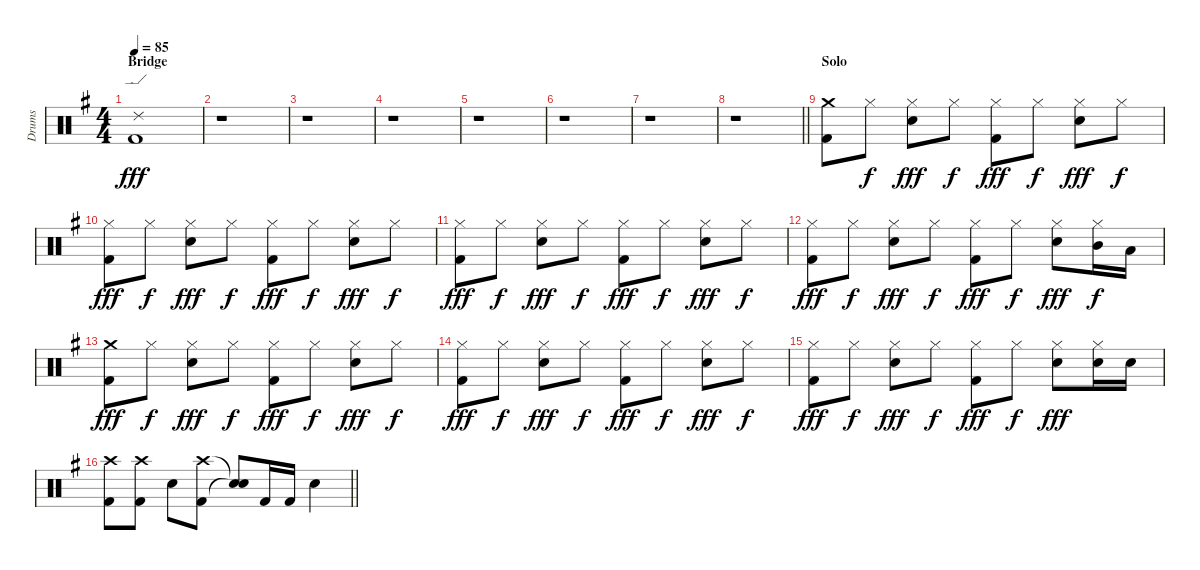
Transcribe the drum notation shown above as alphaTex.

\track ("Drums" "Drums") {instrument percussion}
\staff {score}
\articulation defaults
\ts (4 4)
\section ("" "Bridge")
\tempo 85
\clef neutral
\ks g
("Ride (edge) 2" "Kick (hit) 2").1{dy fff} |
r.1 |
r.1 |
r.1 |
r.1 |
r.1 |
r.1 |
\barLineRight lightlight
r.1 |
\section ("" "Solo")
("Crash medium (hit)" "Kick (hit) 2").8 "Hi-Hat (closed)".8{dy f} ("Hi-Hat (closed)" "Snare (hit) 2").8{dy fff} "Hi-Hat (closed)".8{dy f} ("Hi-Hat (closed)" "Kick (hit) 2").8{dy fff} "Hi-Hat (closed)".8{dy f} ("Hi-Hat (closed)" "Snare (hit) 2").8{dy fff} "Hi-Hat (closed)".8{dy f} |
("Hi-Hat (closed)" "Kick (hit) 2").8{dy fff} "Hi-Hat (closed)".8{dy f} ("Hi-Hat (closed)" "Snare (hit) 2").8{dy fff} "Hi-Hat (closed)".8{dy f} ("Hi-Hat (closed)" "Kick (hit) 2").8{dy fff} "Hi-Hat (closed)".8{dy f} ("Hi-Hat (closed)" "Snare (hit) 2").8{dy fff} "Hi-Hat (closed)".8{dy f} |
("Hi-Hat (closed)" "Kick (hit) 2").8{dy fff} "Hi-Hat (closed)".8{dy f} ("Hi-Hat (closed)" "Snare (hit) 2").8{dy fff} "Hi-Hat (closed)".8{dy f} ("Hi-Hat (closed)" "Kick (hit) 2").8{dy fff} "Hi-Hat (closed)".8{dy f} ("Hi-Hat (closed)" "Snare (hit) 2").8{dy fff} "Hi-Hat (closed)".8{dy f} |
("Hi-Hat (closed)" "Kick (hit) 2").8{dy fff} "Hi-Hat (closed)".8{dy f} ("Hi-Hat (closed)" "Snare (hit) 2").8{dy fff} "Hi-Hat (closed)".8{dy f} ("Hi-Hat (closed)" "Kick (hit) 2").8{dy fff} "Hi-Hat (closed)".8{dy f} ("Hi-Hat (closed)" "Snare (hit) 2").8{dy fff} ("Hi-Hat (closed)" "Mid Tom (hit)").16{dy f} "Low Tom (hit)".16 |
("Crash medium (hit)" "Kick (hit) 2").8{dy fff} "Hi-Hat (closed)".8{dy f} ("Hi-Hat (closed)" "Snare (hit) 2").8{dy fff} "Hi-Hat (closed)".8{dy f} ("Hi-Hat (closed)" "Kick (hit) 2").8{dy fff} "Hi-Hat (closed)".8{dy f} ("Hi-Hat (closed)" "Snare (hit) 2").8{dy fff} "Hi-Hat (closed)".8{dy f} |
("Hi-Hat (closed)" "Kick (hit) 2").8{dy fff} "Hi-Hat (closed)".8{dy f} ("Hi-Hat (closed)" "Snare (hit) 2").8{dy fff} "Hi-Hat (closed)".8{dy f} ("Hi-Hat (closed)" "Kick (hit) 2").8{dy fff} "Hi-Hat (closed)".8{dy f} ("Hi-Hat (closed)" "Snare (hit) 2").8{dy fff} "Hi-Hat (closed)".8{dy f} |
("Hi-Hat (closed)" "Kick (hit) 2").8{dy fff} "Hi-Hat (closed)".8{dy f} ("Hi-Hat (closed)" "Snare (hit) 2").8{dy fff} "Hi-Hat (closed)".8{dy f} ("Hi-Hat (closed)" "Kick (hit) 2").8{dy fff} "Hi-Hat (closed)".8{dy f} ("Hi-Hat (closed)" "Snare (hit) 2").8{dy fff} ("Hi-Hat (closed)" "Snare (hit) 2").16 "Snare (hit) 2".16 |
\barLineRight lightlight
("Crash high (hit)" "Kick (hit) 2").8 ("Crash high (hit)" "Kick (hit) 2").8 "Snare (hit) 2".8 ("Crash high (hit)" "Kick (hit) 2").8 ("Snare (hit)"{t} "Snare (hit)"{t}).8 "Kick (hit) 2".16 "Kick (hit) 2".16 "Snare (hit) 2".4
